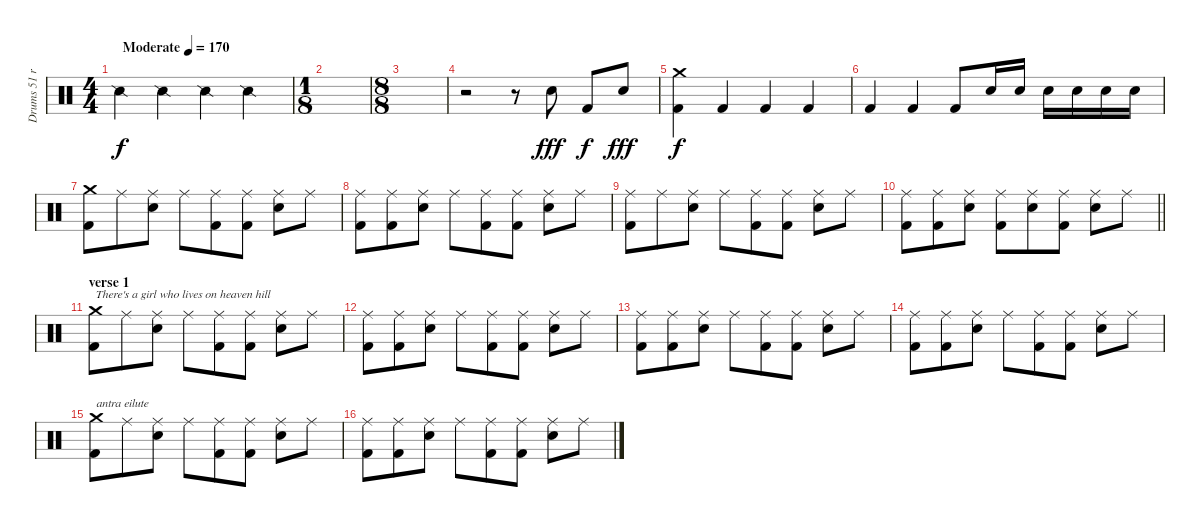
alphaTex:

\track ("Drums 51 ride ALBUM" "Drums 51 r") {mute instrument percussion}
\staff {score}
\articulation defaults
\ts (4 4)
\tempo (170 "Moderate")
\clef neutral
\ks c "Snare (side stick) 2".4{dy f} "Snare (side stick) 2".4 "Snare (side stick) 2".4 "Snare (side stick) 2".4
|
\ts (1 8)
|
\ts (8 8)
|
r.2 r.8 "Snare (hit) 2".8{dy fff} "Kick (hit) 2".8{dy f} "Snare (hit) 2".8{dy fff} |
("Crash medium (hit)" "Kick (hit) 2").4{dy f} "Kick (hit) 2".4 "Kick (hit) 2".4 "Kick (hit) 2".4 |
"Kick (hit) 2".4 "Kick (hit) 2".4 "Kick (hit) 2".8 "Snare (hit) 2".16 "Snare (hit) 2".16 "Snare (hit) 2".16 "Snare (hit) 2".16 "Snare (hit) 2".16 "Snare (hit) 2".16 |
("Crash medium (hit)" "Kick (hit) 2").8 "Ride (middle)".8 ("Ride (middle)" "Snare (hit) 2").8 "Ride (middle)".8 ("Ride (middle)" "Kick (hit) 2").8 ("Ride (middle)" "Kick (hit) 2").8 ("Ride (middle)" "Snare (hit) 2").8 "Ride (middle)".8 |
("Ride (middle)" "Kick (hit) 2").8 ("Ride (middle)" "Kick (hit) 2").8 ("Ride (middle)" "Snare (hit) 2").8 "Ride (middle)".8 ("Ride (middle)" "Kick (hit) 2").8 ("Ride (middle)" "Kick (hit) 2").8 ("Ride (middle)" "Snare (hit) 2").8 "Ride (middle)".8 |
("Ride (middle)" "Kick (hit) 2").8 "Ride (middle)".8 ("Ride (middle)" "Snare (hit) 2").8 "Ride (middle)".8 ("Ride (middle)" "Kick (hit) 2").8 ("Ride (middle)" "Kick (hit) 2").8 ("Ride (middle)" "Snare (hit) 2").8 "Ride (middle)".8 |
\barLineRight lightlight
("Ride (middle)" "Kick (hit) 2").8 ("Ride (middle)" "Kick (hit) 2").8 ("Ride (middle)" "Snare (hit) 2").8 ("Ride (middle)" "Kick (hit) 2").8 ("Ride (middle)" "Snare (hit) 2").8 ("Ride (middle)" "Kick (hit) 2").8 ("Ride (middle)" "Snare (hit) 2").8 "Ride (middle)".8 |
\section ("" "verse 1")
("Crash medium (hit)" "Kick (hit) 2").8{txt "There's a girl who lives on heaven hill"} "Ride (middle)".8 ("Ride (middle)" "Snare (hit) 2").8 "Ride (middle)".8 ("Ride (middle)" "Kick (hit) 2").8 ("Ride (middle)" "Kick (hit) 2").8 ("Ride (middle)" "Snare (hit) 2").8 "Ride (middle)".8 |
("Ride (middle)" "Kick (hit) 2").8 ("Ride (middle)" "Kick (hit) 2").8 ("Ride (middle)" "Snare (hit) 2").8 "Ride (middle)".8 ("Ride (middle)" "Kick (hit) 2").8 ("Ride (middle)" "Kick (hit) 2").8 ("Ride (middle)" "Snare (hit) 2").8 "Ride (middle)".8 |
("Ride (middle)" "Kick (hit) 2").8 ("Ride (middle)" "Kick (hit) 2").8 ("Ride (middle)" "Snare (hit) 2").8 "Ride (middle)".8 ("Ride (middle)" "Kick (hit) 2").8 ("Ride (middle)" "Kick (hit) 2").8 ("Ride (middle)" "Snare (hit) 2").8 "Ride (middle)".8 |
("Ride (middle)" "Kick (hit) 2").8 ("Ride (middle)" "Kick (hit) 2").8 ("Ride (middle)" "Snare (hit) 2").8 "Ride (middle)".8 ("Ride (middle)" "Kick (hit) 2").8 ("Ride (middle)" "Kick (hit) 2").8 ("Ride (middle)" "Snare (hit) 2").8 "Ride (middle)".8 |
("Crash medium (hit)" "Kick (hit) 2").8{txt "antra eilute"} "Ride (middle)".8 ("Ride (middle)" "Snare (hit) 2").8 "Ride (middle)".8 ("Ride (middle)" "Kick (hit) 2").8 ("Ride (middle)" "Kick (hit) 2").8 ("Ride (middle)" "Snare (hit) 2").8 "Ride (middle)".8 |
("Ride (middle)" "Kick (hit) 2").8 ("Ride (middle)" "Kick (hit) 2").8 ("Ride (middle)" "Snare (hit) 2").8 "Ride (middle)".8 ("Ride (middle)" "Kick (hit) 2").8 ("Ride (middle)" "Kick (hit) 2").8 ("Ride (middle)" "Snare (hit) 2").8 "Ride (middle)".8
